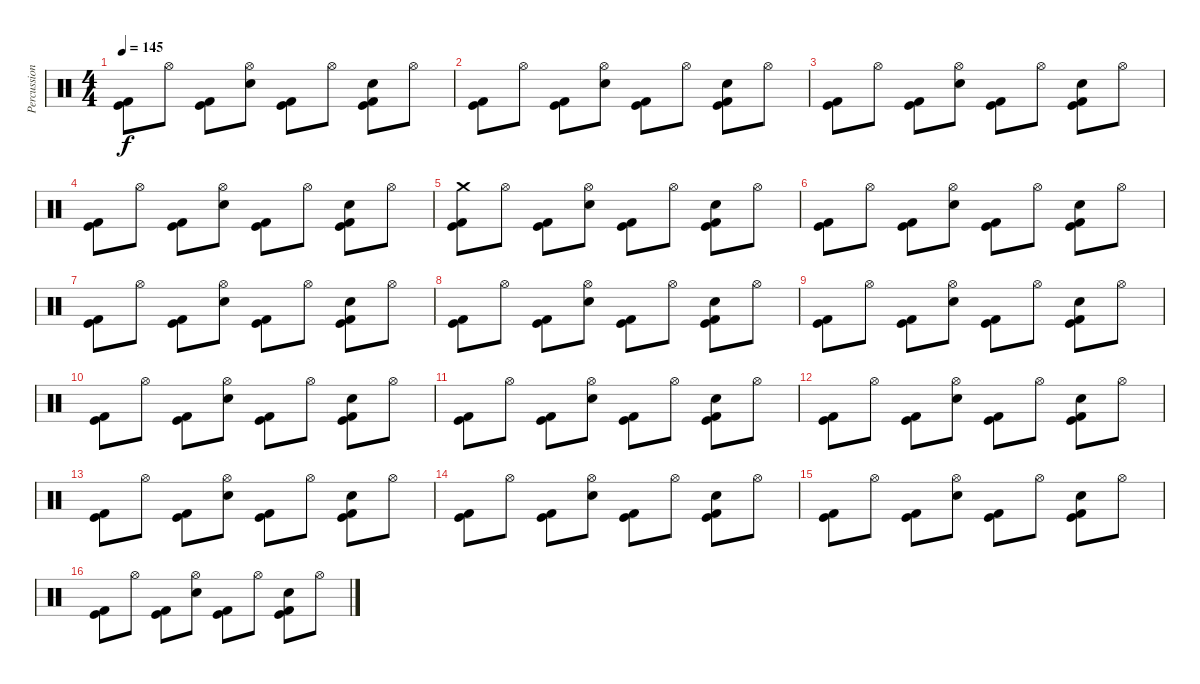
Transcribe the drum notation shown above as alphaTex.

\track ("Percussion" "Percussion") {instrument percussion}
\staff {score}
\articulation defaults
\ts (4 4)
\tempo 145
\clef neutral
\ks c
("Kick (hit)" "Kick (hit) 2").8{dy f} "Hi-Hat (open)".8 ("Kick (hit)" "Kick (hit) 2").8 ("Hi-Hat (open)" "Snare (hit) 2").8 ("Kick (hit)" "Kick (hit) 2").8 "Hi-Hat (open)".8 ("Electric Snare (hit)" "Kick (hit)" "Kick (hit) 2").8 "Hi-Hat (open)".8 |
("Kick (hit)" "Kick (hit) 2").8 "Hi-Hat (open)".8 ("Kick (hit)" "Kick (hit) 2").8 ("Hi-Hat (open)" "Snare (hit) 2").8 ("Kick (hit)" "Kick (hit) 2").8 "Hi-Hat (open)".8 ("Electric Snare (hit)" "Kick (hit)" "Kick (hit) 2").8 "Hi-Hat (open)".8 |
("Kick (hit)" "Kick (hit) 2").8 "Hi-Hat (open)".8 ("Kick (hit)" "Kick (hit) 2").8 ("Hi-Hat (open)" "Snare (hit) 2").8 ("Kick (hit)" "Kick (hit) 2").8 "Hi-Hat (open)".8 ("Electric Snare (hit)" "Kick (hit)" "Kick (hit) 2").8 "Hi-Hat (open)".8 |
("Kick (hit)" "Kick (hit) 2").8 "Hi-Hat (open)".8 ("Kick (hit)" "Kick (hit) 2").8 ("Hi-Hat (open)" "Snare (hit) 2").8 ("Kick (hit)" "Kick (hit) 2").8 "Hi-Hat (open)".8 ("Electric Snare (hit)" "Kick (hit)" "Kick (hit) 2").8 "Hi-Hat (open)".8 |
("Crash medium (hit)" "Kick (hit)" "Kick (hit) 2").8 "Hi-Hat (open)".8 ("Kick (hit)" "Kick (hit) 2").8 ("Hi-Hat (open)" "Snare (hit) 2").8 ("Kick (hit)" "Kick (hit) 2").8 "Hi-Hat (open)".8 ("Electric Snare (hit)" "Kick (hit)" "Kick (hit) 2").8 "Hi-Hat (open)".8 |
("Kick (hit)" "Kick (hit) 2").8 "Hi-Hat (open)".8 ("Kick (hit)" "Kick (hit) 2").8 ("Hi-Hat (open)" "Snare (hit) 2").8 ("Kick (hit)" "Kick (hit) 2").8 "Hi-Hat (open)".8 ("Electric Snare (hit)" "Kick (hit)" "Kick (hit) 2").8 "Hi-Hat (open)".8 |
("Kick (hit)" "Kick (hit) 2").8 "Hi-Hat (open)".8 ("Kick (hit)" "Kick (hit) 2").8 ("Hi-Hat (open)" "Snare (hit) 2").8 ("Kick (hit)" "Kick (hit) 2").8 "Hi-Hat (open)".8 ("Electric Snare (hit)" "Kick (hit)" "Kick (hit) 2").8 "Hi-Hat (open)".8 |
("Kick (hit)" "Kick (hit) 2").8 "Hi-Hat (open)".8 ("Kick (hit)" "Kick (hit) 2").8 ("Hi-Hat (open)" "Snare (hit) 2").8 ("Kick (hit)" "Kick (hit) 2").8 "Hi-Hat (open)".8 ("Electric Snare (hit)" "Kick (hit)" "Kick (hit) 2").8 "Hi-Hat (open)".8 |
("Kick (hit)" "Kick (hit) 2").8 "Hi-Hat (open)".8 ("Kick (hit)" "Kick (hit) 2").8 ("Hi-Hat (open)" "Snare (hit) 2").8 ("Kick (hit)" "Kick (hit) 2").8 "Hi-Hat (open)".8 ("Electric Snare (hit)" "Kick (hit)" "Kick (hit) 2").8 "Hi-Hat (open)".8 |
("Kick (hit)" "Kick (hit) 2").8 "Hi-Hat (open)".8 ("Kick (hit)" "Kick (hit) 2").8 ("Hi-Hat (open)" "Snare (hit) 2").8 ("Kick (hit)" "Kick (hit) 2").8 "Hi-Hat (open)".8 ("Electric Snare (hit)" "Kick (hit)" "Kick (hit) 2").8 "Hi-Hat (open)".8 |
("Kick (hit)" "Kick (hit) 2").8 "Hi-Hat (open)".8 ("Kick (hit)" "Kick (hit) 2").8 ("Hi-Hat (open)" "Snare (hit) 2").8 ("Kick (hit)" "Kick (hit) 2").8 "Hi-Hat (open)".8 ("Electric Snare (hit)" "Kick (hit)" "Kick (hit) 2").8 "Hi-Hat (open)".8 |
("Kick (hit)" "Kick (hit) 2").8 "Hi-Hat (open)".8 ("Kick (hit)" "Kick (hit) 2").8 ("Hi-Hat (open)" "Snare (hit) 2").8 ("Kick (hit)" "Kick (hit) 2").8 "Hi-Hat (open)".8 ("Electric Snare (hit)" "Kick (hit)" "Kick (hit) 2").8 "Hi-Hat (open)".8 |
("Kick (hit)" "Kick (hit) 2").8 "Hi-Hat (open)".8 ("Kick (hit)" "Kick (hit) 2").8 ("Hi-Hat (open)" "Snare (hit) 2").8 ("Kick (hit)" "Kick (hit) 2").8 "Hi-Hat (open)".8 ("Electric Snare (hit)" "Kick (hit)" "Kick (hit) 2").8 "Hi-Hat (open)".8 |
("Kick (hit)" "Kick (hit) 2").8 "Hi-Hat (open)".8 ("Kick (hit)" "Kick (hit) 2").8 ("Hi-Hat (open)" "Snare (hit) 2").8 ("Kick (hit)" "Kick (hit) 2").8 "Hi-Hat (open)".8 ("Electric Snare (hit)" "Kick (hit)" "Kick (hit) 2").8 "Hi-Hat (open)".8 |
("Kick (hit)" "Kick (hit) 2").8 "Hi-Hat (open)".8 ("Kick (hit)" "Kick (hit) 2").8 ("Hi-Hat (open)" "Snare (hit) 2").8 ("Kick (hit)" "Kick (hit) 2").8 "Hi-Hat (open)".8 ("Electric Snare (hit)" "Kick (hit)" "Kick (hit) 2").8 "Hi-Hat (open)".8 |
("Kick (hit)" "Kick (hit) 2").8 "Hi-Hat (open)".8 ("Kick (hit)" "Kick (hit) 2").8 ("Hi-Hat (open)" "Snare (hit) 2").8 ("Kick (hit)" "Kick (hit) 2").8 "Hi-Hat (open)".8 ("Electric Snare (hit)" "Kick (hit)" "Kick (hit) 2").8 "Hi-Hat (open)".8
